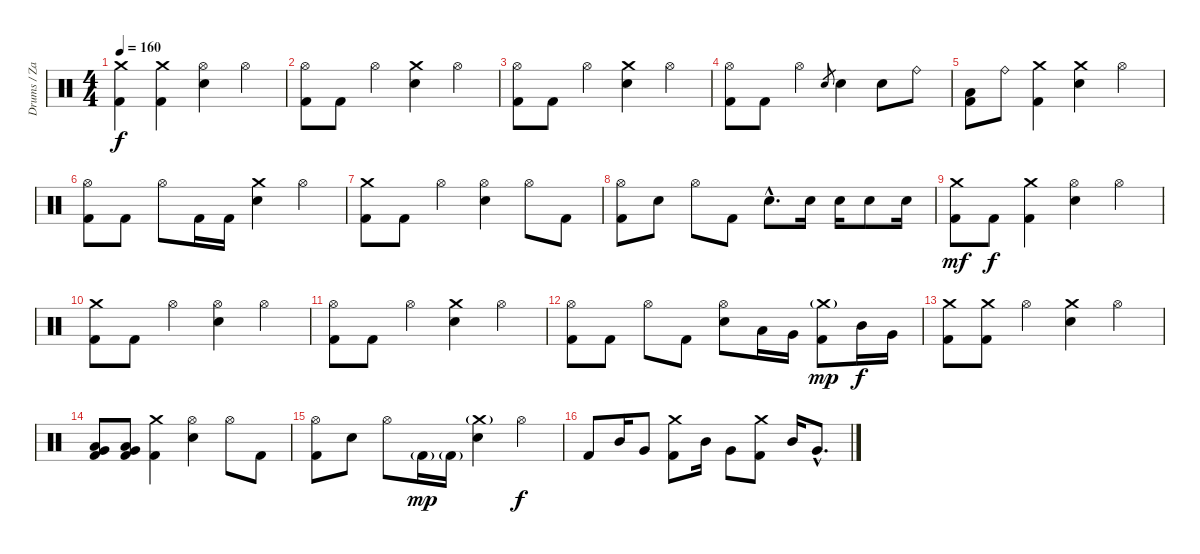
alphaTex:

\track ("Drums / Zac Hill" "Drums / Za") {instrument percussion}
\staff {score}
\articulation defaults
\ts (4 4)
\tempo 160
\clef neutral
\ks c
("Crash medium (hit)" "Kick (hit) 2").4{dy f} ("Crash medium (hit)" "Kick (hit) 2").4 ("Hi-Hat (open)" "Electric Snare (hit)").4 "Hi-Hat (open)".4 |
("Hi-Hat (open)" "Kick (hit) 2").8 "Kick (hit) 2".8 "Hi-Hat (open)".4 ("Crash medium (hit)" "Electric Snare (hit)").4 "Hi-Hat (open)".4 |
("Hi-Hat (open)" "Kick (hit) 2").8 "Kick (hit) 2".8 "Hi-Hat (open)".4 ("Crash medium (hit)" "Electric Snare (hit)").4 "Hi-Hat (open)".4 |
("Hi-Hat (open)" "Kick (hit) 2").8 "Kick (hit) 2".8 "Hi-Hat (open)".4 "Electric Snare (hit)".8{gr} "Electric Snare (hit)".4 "Electric Snare (hit)".8 "Ride (bell)".8 |
("Low Tom (hit)" "Kick (hit) 2").8 "Ride (bell)".8 ("Crash medium (hit)" "Kick (hit) 2").4 ("Crash medium (hit)" "Electric Snare (hit)").4 "Hi-Hat (open)".4 |
("Hi-Hat (open)" "Kick (hit) 2").8 "Kick (hit) 2".8 "Hi-Hat (open)".8 "Kick (hit) 2".16 "Kick (hit) 2".16 ("Crash medium (hit)" "Electric Snare (hit)").4 "Hi-Hat (open)".4 |
("Crash medium (hit)" "Kick (hit) 2").8 "Kick (hit) 2".8 "Hi-Hat (open)".4 ("Hi-Hat (open)" "Electric Snare (hit)").4 "Hi-Hat (open)".8 "Kick (hit) 2".8 |
("Hi-Hat (open)" "Kick (hit) 2").8 "Electric Snare (hit)".8 "Hi-Hat (open)".8 "Kick (hit) 2".8 "Electric Snare (hit)"{hac}.8{d} "Electric Snare (hit)".16 "Electric Snare (hit)".16 "Electric Snare (hit)".8 "Electric Snare (hit)".16 |
("Crash medium (hit)" "Kick (hit) 2").8{dy mf} "Kick (hit) 2".8{dy f} ("Crash medium (hit)" "Kick (hit) 2").4 ("Hi-Hat (open)" "Electric Snare (hit)").4 "Hi-Hat (open)".4 |
("Crash medium (hit)" "Kick (hit) 2").8 "Kick (hit) 2".8 "Hi-Hat (open)".4 ("Hi-Hat (open)" "Electric Snare (hit)").4 "Hi-Hat (open)".4 |
("Hi-Hat (open)" "Kick (hit) 2").8 "Kick (hit) 2".8 "Hi-Hat (open)".4 ("Crash medium (hit)" "Electric Snare (hit)").4 "Hi-Hat (open)".4 |
("Hi-Hat (open)" "Kick (hit) 2").8 "Kick (hit) 2".8 "Hi-Hat (open)".8 "Kick (hit) 2".8 ("Hi-Hat (open)" "Electric Snare (hit)").8 "Low Tom (hit)".16 "Very Low Tom (hit)".16 ("Crash medium (hit)"{g} "Kick (hit) 2").8{dy mp} "Mid Tom (hit)".16{dy f} "Very Low Tom (hit)".16 |
("Crash medium (hit)" "Kick (hit) 2").8 ("Crash medium (hit)" "Kick (hit) 2").8 "Hi-Hat (open)".4 ("Crash medium (hit)" "Electric Snare (hit)").4 "Hi-Hat (open)".4 |
("Low Tom (hit)" "Very Low Tom (hit)" "Kick (hit) 2").8 ("Low Tom (hit)" "Very Low Tom (hit)" "Kick (hit) 2").8 ("Crash medium (hit)" "Kick (hit) 2").4 ("Hi-Hat (open)" "Electric Snare (hit)").4 "Hi-Hat (open)".8 "Kick (hit) 2".8 |
("Hi-Hat (open)" "Kick (hit) 2").8 "Electric Snare (hit)".8 "Hi-Hat (open)".8 "Kick (hit) 2"{g}.16{dy mp} "Kick (hit) 2"{g}.16 ("Crash medium (hit)"{g} "Electric Snare (hit)").4 "Hi-Hat (open)".4{dy f} |
"Kick (hit) 2".8 "Mid Tom (hit)".16 "Very Low Tom (hit)".8 ("Crash medium (hit)" "Kick (hit) 2").8 "Mid Tom (hit)".16 "Very Low Tom (hit)".8 ("Crash medium (hit)" "Kick (hit) 2").8 "Mid Tom (hit)".16 "Very Low Tom (hit)"{hac}.8{d}
